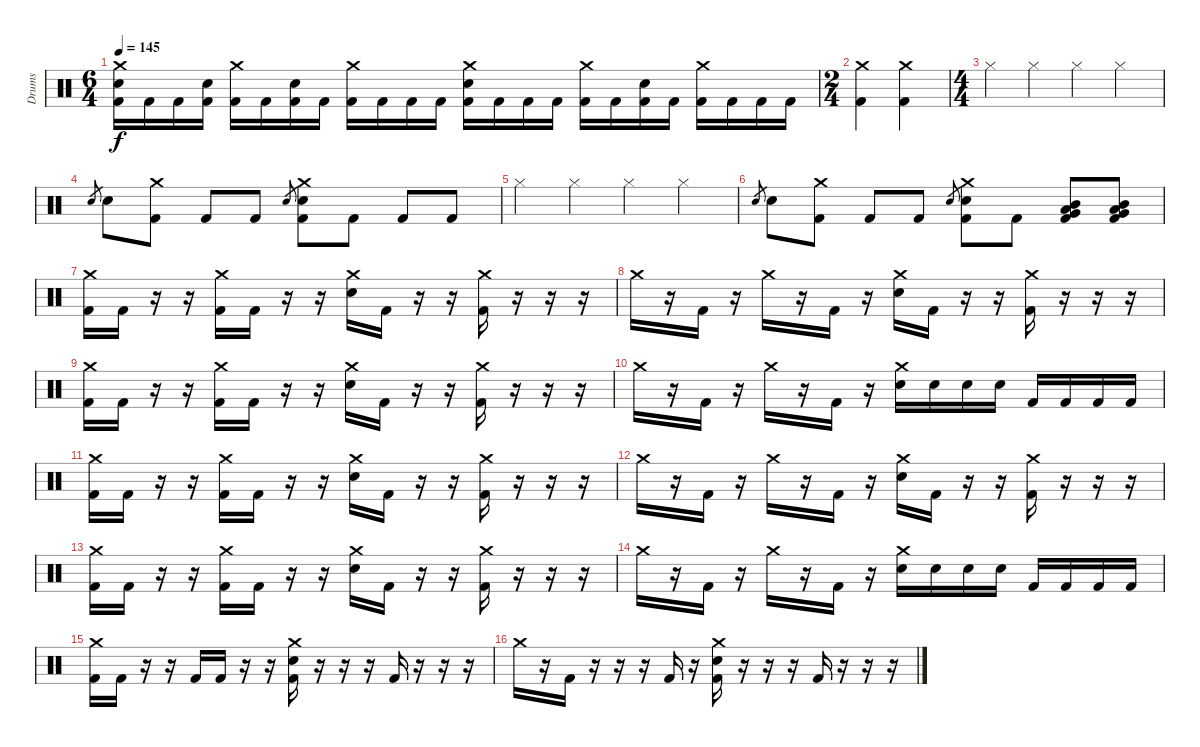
\track ("Drums" "Drums") {instrument percussion}
\staff {score}
\articulation defaults
\ts (6 4)
\tempo 145
\clef neutral
\ks c
("Crash medium (hit)" "Snare (hit) 2" "Kick (hit) 2").16{dy f} "Kick (hit) 2".16 "Kick (hit) 2".16 ("Snare (hit) 2" "Kick (hit) 2").16 ("Crash medium (hit)" "Kick (hit) 2").16 "Kick (hit) 2".16 ("Snare (hit) 2" "Kick (hit) 2").16 "Kick (hit) 2".16 ("Crash medium (hit)" "Kick (hit) 2").16 "Kick (hit) 2".16 "Kick (hit) 2".16 "Kick (hit) 2".16 ("Crash medium (hit)" "Snare (hit) 2" "Kick (hit) 2").16 "Kick (hit) 2".16 "Kick (hit) 2".16 "Kick (hit) 2".16 ("Crash medium (hit)" "Kick (hit) 2").16 "Kick (hit) 2".16 ("Snare (hit) 2" "Kick (hit) 2").16 "Kick (hit) 2".16 ("Crash medium (hit)" "Kick (hit) 2").16 "Kick (hit) 2".16 "Kick (hit) 2".16 "Kick (hit) 2".16 |
\ts (2 4)
("Crash medium (hit)" "Kick (hit) 2").4 ("Crash medium (hit)" "Kick (hit) 2").4 |
\ts (4 4)
"Hi-Hat (closed)".4 "Hi-Hat (closed)".4 "Hi-Hat (closed)".4 "Hi-Hat (closed)".4 |
"Electric Snare (hit)".8{gr} "Electric Snare (hit)".8 ("Crash medium (hit)" "Kick (hit) 2").8 "Kick (hit) 2".8 "Kick (hit) 2".8 "Electric Snare (hit)".8{gr} ("Crash medium (hit)" "Electric Snare (hit)" "Kick (hit) 2").8 "Kick (hit) 2".8 "Kick (hit) 2".8 "Kick (hit) 2".8 |
"Hi-Hat (closed)".4 "Hi-Hat (closed)".4 "Hi-Hat (closed)".4 "Hi-Hat (closed)".4 |
"Electric Snare (hit)".8{gr} "Electric Snare (hit)".8 ("Crash medium (hit)" "Kick (hit) 2").8 "Kick (hit) 2".8 "Kick (hit) 2".8 "Electric Snare (hit)".8{gr} ("Crash medium (hit)" "Electric Snare (hit)" "Kick (hit) 2").8 "Kick (hit) 2".8 ("Mid Tom (hit)" "Very Low Tom (hit)" "Low Floor Tom (hit)" "Kick (hit) 2").8 ("Mid Tom (hit)" "Very Low Tom (hit)" "Low Floor Tom (hit)" "Kick (hit) 2").8 |
("Crash medium (hit)" "Kick (hit) 2").16 "Kick (hit) 2".16 r.16 r.16 ("Crash medium (hit)" "Kick (hit) 2").16 "Kick (hit) 2".16 r.16 r.16 ("Crash medium (hit)" "Electric Snare (hit)").16 "Kick (hit) 2".16 r.16 r.16 ("Crash medium (hit)" "Kick (hit) 2").16 r.16 r.16 r.16 |
"Crash medium (hit)".16 r.16 "Kick (hit) 2".16 r.16 "Crash medium (hit)".16 r.16 "Kick (hit) 2".16 r.16 ("Crash medium (hit)" "Electric Snare (hit)").16 "Kick (hit) 2".16 r.16 r.16 ("Crash medium (hit)" "Kick (hit) 2").16 r.16 r.16 r.16 |
("Crash medium (hit)" "Kick (hit) 2").16 "Kick (hit) 2".16 r.16 r.16 ("Crash medium (hit)" "Kick (hit) 2").16 "Kick (hit) 2".16 r.16 r.16 ("Crash medium (hit)" "Electric Snare (hit)").16 "Kick (hit) 2".16 r.16 r.16 ("Crash medium (hit)" "Kick (hit) 2").16 r.16 r.16 r.16 |
"Crash medium (hit)".16 r.16 "Kick (hit) 2".16 r.16 "Crash medium (hit)".16 r.16 "Kick (hit) 2".16 r.16 ("Crash medium (hit)" "Electric Snare (hit)").16 "Electric Snare (hit)".16 "Electric Snare (hit)".16 "Electric Snare (hit)".16 "Kick (hit) 2".16 "Kick (hit) 2".16 "Kick (hit) 2".16 "Kick (hit) 2".16 |
("Crash medium (hit)" "Kick (hit) 2").16 "Kick (hit) 2".16 r.16 r.16 ("Crash medium (hit)" "Kick (hit) 2").16 "Kick (hit) 2".16 r.16 r.16 ("Crash medium (hit)" "Electric Snare (hit)").16 "Kick (hit) 2".16 r.16 r.16 ("Crash medium (hit)" "Kick (hit) 2").16 r.16 r.16 r.16 |
"Crash medium (hit)".16 r.16 "Kick (hit) 2".16 r.16 "Crash medium (hit)".16 r.16 "Kick (hit) 2".16 r.16 ("Crash medium (hit)" "Electric Snare (hit)").16 "Kick (hit) 2".16 r.16 r.16 ("Crash medium (hit)" "Kick (hit) 2").16 r.16 r.16 r.16 |
("Crash medium (hit)" "Kick (hit) 2").16 "Kick (hit) 2".16 r.16 r.16 ("Crash medium (hit)" "Kick (hit) 2").16 "Kick (hit) 2".16 r.16 r.16 ("Crash medium (hit)" "Electric Snare (hit)").16 "Kick (hit) 2".16 r.16 r.16 ("Crash medium (hit)" "Kick (hit) 2").16 r.16 r.16 r.16 |
"Crash medium (hit)".16 r.16 "Kick (hit) 2".16 r.16 "Crash medium (hit)".16 r.16 "Kick (hit) 2".16 r.16 ("Crash medium (hit)" "Electric Snare (hit)").16 "Electric Snare (hit)".16 "Electric Snare (hit)".16 "Electric Snare (hit)".16 "Kick (hit) 2".16 "Kick (hit) 2".16 "Kick (hit) 2".16 "Kick (hit) 2".16 |
("Crash medium (hit)" "Kick (hit) 2").16 "Kick (hit) 2".16 r.16 r.16 "Kick (hit) 2".16 "Kick (hit) 2".16 r.16 r.16 ("Crash medium (hit)" "Electric Snare (hit)" "Kick (hit) 2").16 r.16 r.16 r.16 "Kick (hit) 2".16 r.16 r.16 r.16 |
"Crash medium (hit)".16 r.16 "Kick (hit) 2".16 r.16 r.16 r.16 "Kick (hit) 2".16 r.16 ("Crash medium (hit)" "Electric Snare (hit)" "Kick (hit) 2").16 r.16 r.16 r.16 "Kick (hit) 2".16 r.16 r.16 r.16
